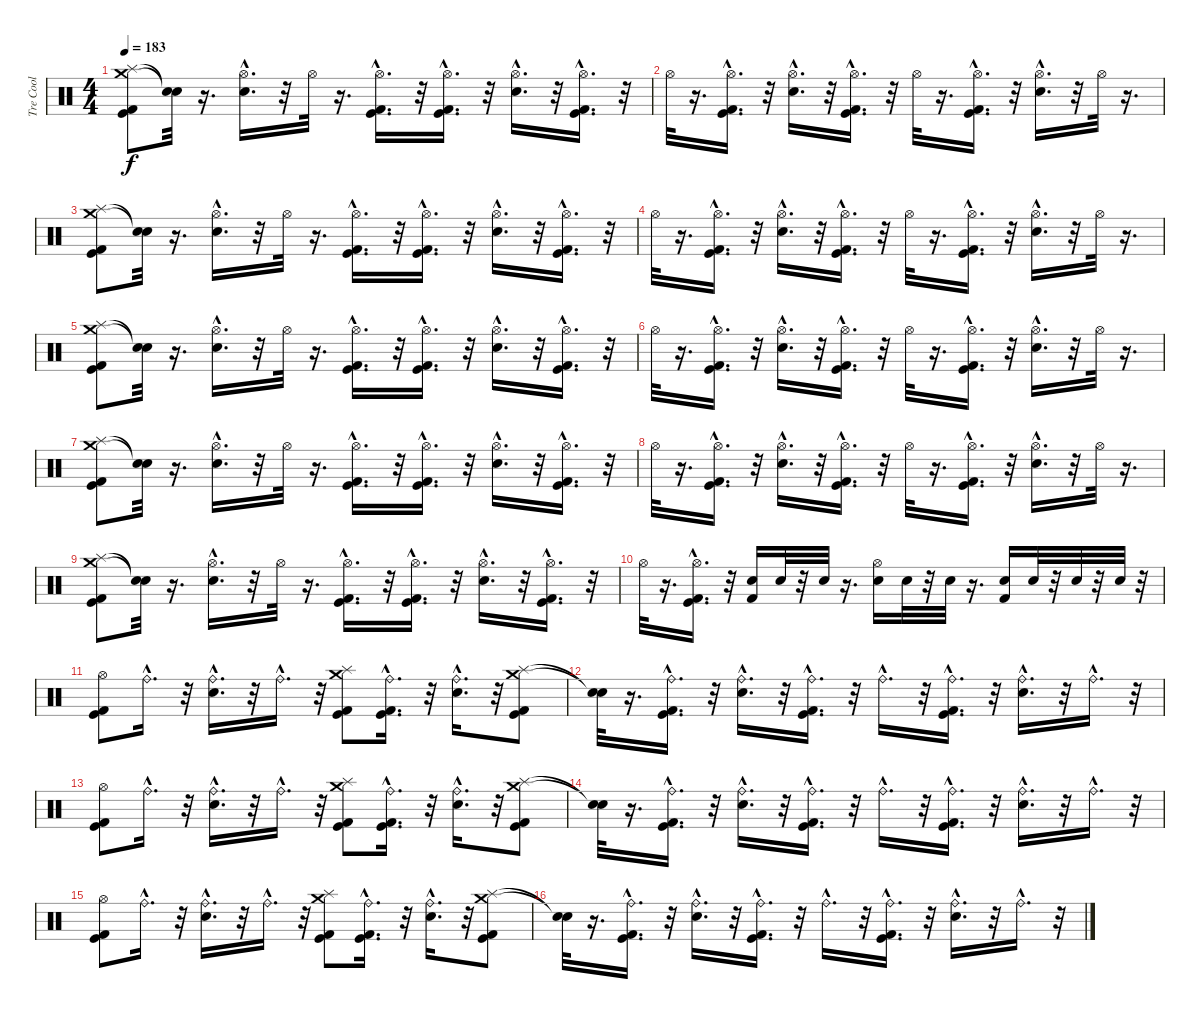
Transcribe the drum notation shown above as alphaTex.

\track ("Tre Cool" "Tre Cool") {instrument percussion}
\staff {score}
\articulation defaults
\ts (4 4)
\tempo 183
\clef neutral
\ks c
("Splash (hit)" "Crash medium (hit)" "Kick (hit)" "Kick (hit) 2").8{dy f} ("Snare (hit)"{t} "Snare (hit)"{t}).32 r.16{d} ("Electric Snare (hit)"{hac} "Hi-Hat (open)"{hac}).16{d} r.32 "Hi-Hat (open)".32 r.16{d} ("Kick (hit)"{hac} "Kick (hit) 2"{hac} "Hi-Hat (open)"{hac}).16{d} r.32 ("Kick (hit)"{hac} "Kick (hit) 2"{hac} "Hi-Hat (open)"{hac}).16{d} r.32 ("Electric Snare (hit)"{hac} "Hi-Hat (open)"{hac}).16{d} r.32 ("Kick (hit)"{hac} "Kick (hit) 2"{hac} "Hi-Hat (open)"{hac}).16{d} r.32 |
"Hi-Hat (open)".32 r.16{d} ("Kick (hit)"{hac} "Kick (hit) 2"{hac} "Hi-Hat (open)"{hac}).16{d} r.32 ("Electric Snare (hit)"{hac} "Hi-Hat (open)"{hac}).16{d} r.32 ("Kick (hit)"{hac} "Kick (hit) 2"{hac} "Hi-Hat (open)"{hac}).16{d} r.32 "Hi-Hat (open)".32 r.16{d} ("Kick (hit)"{hac} "Kick (hit) 2"{hac} "Hi-Hat (open)"{hac}).16{d} r.32 ("Electric Snare (hit)"{hac} "Hi-Hat (open)"{hac}).16{d} r.32 "Hi-Hat (open)".32 r.16{d} |
("Splash (hit)" "Crash medium (hit)" "Kick (hit)" "Kick (hit) 2").8 ("Snare (hit)"{t} "Snare (hit)"{t}).32 r.16{d} ("Electric Snare (hit)"{hac} "Hi-Hat (open)"{hac}).16{d} r.32 "Hi-Hat (open)".32 r.16{d} ("Kick (hit)"{hac} "Kick (hit) 2"{hac} "Hi-Hat (open)"{hac}).16{d} r.32 ("Kick (hit)"{hac} "Kick (hit) 2"{hac} "Hi-Hat (open)"{hac}).16{d} r.32 ("Electric Snare (hit)"{hac} "Hi-Hat (open)"{hac}).16{d} r.32 ("Kick (hit)"{hac} "Kick (hit) 2"{hac} "Hi-Hat (open)"{hac}).16{d} r.32 |
"Hi-Hat (open)".32 r.16{d} ("Kick (hit)"{hac} "Kick (hit) 2"{hac} "Hi-Hat (open)"{hac}).16{d} r.32 ("Electric Snare (hit)"{hac} "Hi-Hat (open)"{hac}).16{d} r.32 ("Kick (hit)"{hac} "Kick (hit) 2"{hac} "Hi-Hat (open)"{hac}).16{d} r.32 "Hi-Hat (open)".32 r.16{d} ("Kick (hit)"{hac} "Kick (hit) 2"{hac} "Hi-Hat (open)"{hac}).16{d} r.32 ("Electric Snare (hit)"{hac} "Hi-Hat (open)"{hac}).16{d} r.32 "Hi-Hat (open)".32 r.16{d} |
("Splash (hit)" "Crash medium (hit)" "Kick (hit)" "Kick (hit) 2").8 ("Snare (hit)"{t} "Snare (hit)"{t}).32 r.16{d} ("Electric Snare (hit)"{hac} "Hi-Hat (open)"{hac}).16{d} r.32 "Hi-Hat (open)".32 r.16{d} ("Kick (hit)"{hac} "Kick (hit) 2"{hac} "Hi-Hat (open)"{hac}).16{d} r.32 ("Kick (hit)"{hac} "Kick (hit) 2"{hac} "Hi-Hat (open)"{hac}).16{d} r.32 ("Electric Snare (hit)"{hac} "Hi-Hat (open)"{hac}).16{d} r.32 ("Kick (hit)"{hac} "Kick (hit) 2"{hac} "Hi-Hat (open)"{hac}).16{d} r.32 |
"Hi-Hat (open)".32 r.16{d} ("Kick (hit)"{hac} "Kick (hit) 2"{hac} "Hi-Hat (open)"{hac}).16{d} r.32 ("Electric Snare (hit)"{hac} "Hi-Hat (open)"{hac}).16{d} r.32 ("Kick (hit)"{hac} "Kick (hit) 2"{hac} "Hi-Hat (open)"{hac}).16{d} r.32 "Hi-Hat (open)".32 r.16{d} ("Kick (hit)"{hac} "Kick (hit) 2"{hac} "Hi-Hat (open)"{hac}).16{d} r.32 ("Electric Snare (hit)"{hac} "Hi-Hat (open)"{hac}).16{d} r.32 "Hi-Hat (open)".32 r.16{d} |
("Splash (hit)" "Crash medium (hit)" "Kick (hit)" "Kick (hit) 2").8 ("Snare (hit)"{t} "Snare (hit)"{t}).32 r.16{d} ("Electric Snare (hit)"{hac} "Hi-Hat (open)"{hac}).16{d} r.32 "Hi-Hat (open)".32 r.16{d} ("Kick (hit)"{hac} "Kick (hit) 2"{hac} "Hi-Hat (open)"{hac}).16{d} r.32 ("Kick (hit)"{hac} "Kick (hit) 2"{hac} "Hi-Hat (open)"{hac}).16{d} r.32 ("Electric Snare (hit)"{hac} "Hi-Hat (open)"{hac}).16{d} r.32 ("Kick (hit)"{hac} "Kick (hit) 2"{hac} "Hi-Hat (open)"{hac}).16{d} r.32 |
"Hi-Hat (open)".32 r.16{d} ("Kick (hit)"{hac} "Kick (hit) 2"{hac} "Hi-Hat (open)"{hac}).16{d} r.32 ("Electric Snare (hit)"{hac} "Hi-Hat (open)"{hac}).16{d} r.32 ("Kick (hit)"{hac} "Kick (hit) 2"{hac} "Hi-Hat (open)"{hac}).16{d} r.32 "Hi-Hat (open)".32 r.16{d} ("Kick (hit)"{hac} "Kick (hit) 2"{hac} "Hi-Hat (open)"{hac}).16{d} r.32 ("Electric Snare (hit)"{hac} "Hi-Hat (open)"{hac}).16{d} r.32 "Hi-Hat (open)".32 r.16{d} |
("Splash (hit)" "Crash medium (hit)" "Kick (hit)" "Kick (hit) 2").8 ("Snare (hit)"{t} "Snare (hit)"{t}).32 r.16{d} ("Electric Snare (hit)"{hac} "Hi-Hat (open)"{hac}).16{d} r.32 "Hi-Hat (open)".32 r.16{d} ("Kick (hit)"{hac} "Kick (hit) 2"{hac} "Hi-Hat (open)"{hac}).16{d} r.32 ("Kick (hit)"{hac} "Kick (hit) 2"{hac} "Hi-Hat (open)"{hac}).16{d} r.32 ("Electric Snare (hit)"{hac} "Hi-Hat (open)"{hac}).16{d} r.32 ("Kick (hit)"{hac} "Kick (hit) 2"{hac} "Hi-Hat (open)"{hac}).16{d} r.32 |
"Hi-Hat (open)".32 r.16{d} ("Kick (hit)"{hac} "Kick (hit) 2"{hac} "Hi-Hat (open)"{hac}).16{d} r.32 ("Electric Snare (hit)" "Kick (hit) 2").16 "Electric Snare (hit)".32 r.32 "Electric Snare (hit)".32 r.16{d} ("Electric Snare (hit)" "Hi-Hat (open)").16 "Electric Snare (hit)".32 r.32 "Electric Snare (hit)".32 r.16{d} ("Electric Snare (hit)" "Kick (hit) 2").16 "Electric Snare (hit)".32 r.32 "Electric Snare (hit)".32 r.32 "Electric Snare (hit)".32 r.32 |
("Kick (hit)" "Kick (hit) 2" "Hi-Hat (open)").8 "Ride (bell)"{hac}.16{d} r.32 ("Electric Snare (hit)"{hac} "Ride (bell)"{hac}).16{d} r.32 "Ride (bell)"{hac}.16{d} r.32 ("Splash (hit)" "Crash medium (hit)" "Kick (hit)" "Kick (hit) 2").8 ("Kick (hit)"{hac} "Kick (hit) 2"{hac} "Ride (bell)"{hac}).16{d} r.32 ("Electric Snare (hit)"{hac} "Ride (bell)"{hac}).16{d} r.32 ("Splash (hit)" "Crash medium (hit)" "Kick (hit)" "Kick (hit) 2").8 |
("Snare (hit)"{t} "Snare (hit)"{t}).32 r.16{d} ("Kick (hit)"{hac} "Kick (hit) 2"{hac} "Ride (bell)"{hac}).16{d} r.32 ("Electric Snare (hit)"{hac} "Ride (bell)"{hac}).16{d} r.32 ("Kick (hit)"{hac} "Kick (hit) 2"{hac} "Ride (bell)"{hac}).16{d} r.32 "Ride (bell)"{hac}.16{d} r.32 ("Kick (hit)"{hac} "Kick (hit) 2"{hac} "Ride (bell)"{hac}).16{d} r.32 ("Electric Snare (hit)"{hac} "Ride (bell)"{hac}).16{d} r.32 "Ride (bell)"{hac}.16{d} r.32 |
("Kick (hit)" "Kick (hit) 2" "Hi-Hat (open)").8 "Ride (bell)"{hac}.16{d} r.32 ("Electric Snare (hit)"{hac} "Ride (bell)"{hac}).16{d} r.32 "Ride (bell)"{hac}.16{d} r.32 ("Splash (hit)" "Crash medium (hit)" "Kick (hit)" "Kick (hit) 2").8 ("Kick (hit)"{hac} "Kick (hit) 2"{hac} "Ride (bell)"{hac}).16{d} r.32 ("Electric Snare (hit)"{hac} "Ride (bell)"{hac}).16{d} r.32 ("Splash (hit)" "Crash medium (hit)" "Kick (hit)" "Kick (hit) 2").8 |
("Snare (hit)"{t} "Snare (hit)"{t}).32 r.16{d} ("Kick (hit)"{hac} "Kick (hit) 2"{hac} "Ride (bell)"{hac}).16{d} r.32 ("Electric Snare (hit)"{hac} "Ride (bell)"{hac}).16{d} r.32 ("Kick (hit)"{hac} "Kick (hit) 2"{hac} "Ride (bell)"{hac}).16{d} r.32 "Ride (bell)"{hac}.16{d} r.32 ("Kick (hit)"{hac} "Kick (hit) 2"{hac} "Ride (bell)"{hac}).16{d} r.32 ("Electric Snare (hit)"{hac} "Ride (bell)"{hac}).16{d} r.32 "Ride (bell)"{hac}.16{d} r.32 |
("Kick (hit)" "Kick (hit) 2" "Hi-Hat (open)").8 "Ride (bell)"{hac}.16{d} r.32 ("Electric Snare (hit)"{hac} "Ride (bell)"{hac}).16{d} r.32 "Ride (bell)"{hac}.16{d} r.32 ("Splash (hit)" "Crash medium (hit)" "Kick (hit)" "Kick (hit) 2").8 ("Kick (hit)"{hac} "Kick (hit) 2"{hac} "Ride (bell)"{hac}).16{d} r.32 ("Electric Snare (hit)"{hac} "Ride (bell)"{hac}).16{d} r.32 ("Splash (hit)" "Crash medium (hit)" "Kick (hit)" "Kick (hit) 2").8 |
("Snare (hit)"{t} "Snare (hit)"{t}).32 r.16{d} ("Kick (hit)"{hac} "Kick (hit) 2"{hac} "Ride (bell)"{hac}).16{d} r.32 ("Electric Snare (hit)"{hac} "Ride (bell)"{hac}).16{d} r.32 ("Kick (hit)"{hac} "Kick (hit) 2"{hac} "Ride (bell)"{hac}).16{d} r.32 "Ride (bell)"{hac}.16{d} r.32 ("Kick (hit)"{hac} "Kick (hit) 2"{hac} "Ride (bell)"{hac}).16{d} r.32 ("Electric Snare (hit)"{hac} "Ride (bell)"{hac}).16{d} r.32 "Ride (bell)"{hac}.16{d} r.32
